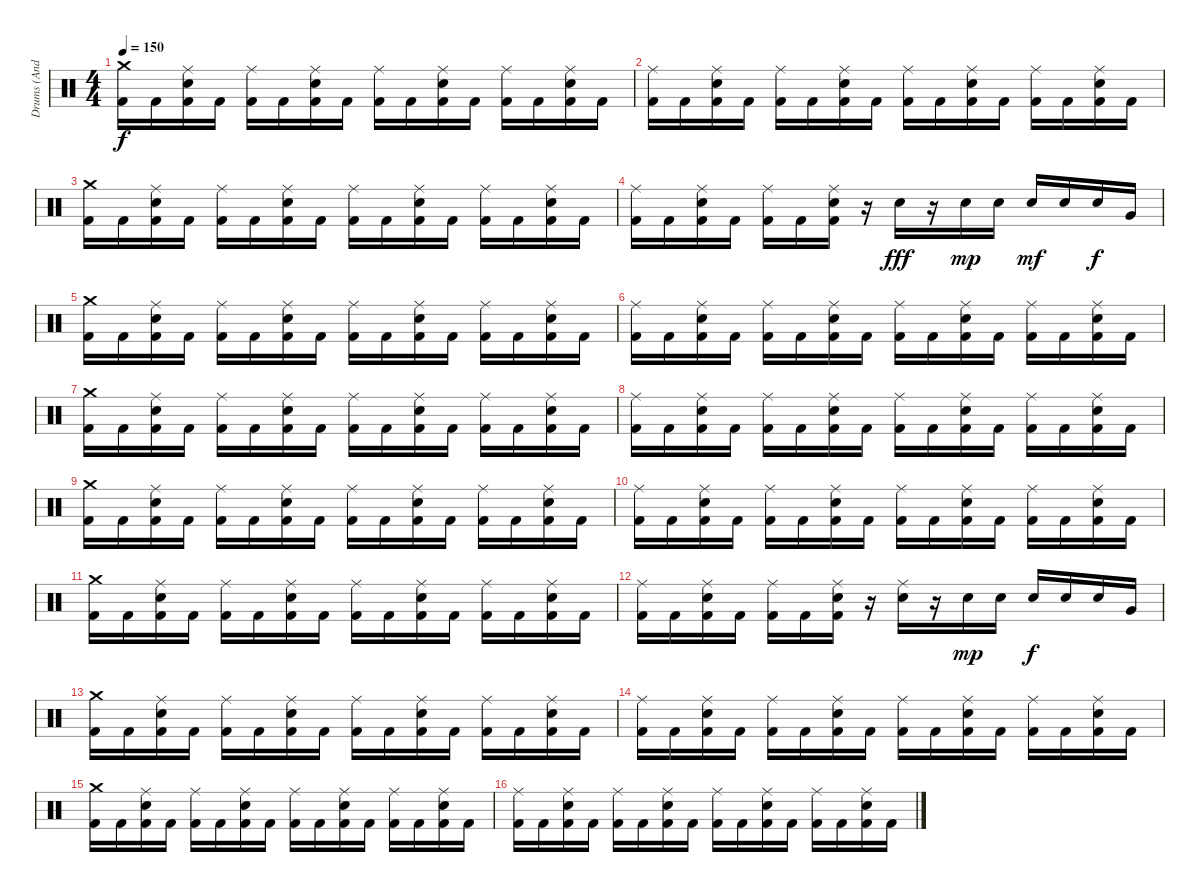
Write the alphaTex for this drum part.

\track ("Drums (Andy C)" "Drums (And") {instrument percussion}
\staff {score}
\articulation defaults
\ts (4 4)
\tempo 150
\clef neutral
\ks c
("Crash medium (hit)" "Kick (hit) 2").16{dy f} "Kick (hit) 2".16 ("Ride (middle)" "Kick (hit) 2" "Electric Snare (hit)").16 "Kick (hit) 2".16 ("Ride (middle)" "Kick (hit) 2").16 "Kick (hit) 2".16 ("Ride (middle)" "Kick (hit) 2" "Electric Snare (hit)").16 "Kick (hit) 2".16 ("Ride (middle)" "Kick (hit) 2").16 "Kick (hit) 2".16 ("Ride (middle)" "Kick (hit) 2" "Electric Snare (hit)").16 "Kick (hit) 2".16 ("Ride (middle)" "Kick (hit) 2").16 "Kick (hit) 2".16 ("Ride (middle)" "Kick (hit) 2" "Electric Snare (hit)").16 "Kick (hit) 2".16 |
("Ride (middle)" "Kick (hit) 2").16 "Kick (hit) 2".16 ("Ride (middle)" "Kick (hit) 2" "Electric Snare (hit)").16 "Kick (hit) 2".16 ("Ride (middle)" "Kick (hit) 2").16 "Kick (hit) 2".16 ("Ride (middle)" "Kick (hit) 2" "Electric Snare (hit)").16 "Kick (hit) 2".16 ("Ride (middle)" "Kick (hit) 2").16 "Kick (hit) 2".16 ("Ride (middle)" "Kick (hit) 2" "Electric Snare (hit)").16 "Kick (hit) 2".16 ("Ride (middle)" "Kick (hit) 2").16 "Kick (hit) 2".16 ("Ride (middle)" "Kick (hit) 2" "Electric Snare (hit)").16 "Kick (hit) 2".16 |
("Crash medium (hit)" "Kick (hit) 2").16 "Kick (hit) 2".16 ("Ride (middle)" "Kick (hit) 2" "Electric Snare (hit)").16 "Kick (hit) 2".16 ("Ride (middle)" "Kick (hit) 2").16 "Kick (hit) 2".16 ("Ride (middle)" "Kick (hit) 2" "Electric Snare (hit)").16 "Kick (hit) 2".16 ("Ride (middle)" "Kick (hit) 2").16 "Kick (hit) 2".16 ("Ride (middle)" "Kick (hit) 2" "Electric Snare (hit)").16 "Kick (hit) 2".16 ("Ride (middle)" "Kick (hit) 2").16 "Kick (hit) 2".16 ("Ride (middle)" "Kick (hit) 2" "Electric Snare (hit)").16 "Kick (hit) 2".16 |
("Ride (middle)" "Kick (hit) 2").16 "Kick (hit) 2".16 ("Ride (middle)" "Kick (hit) 2" "Electric Snare (hit)").16 "Kick (hit) 2".16 ("Ride (middle)" "Kick (hit) 2").16 "Kick (hit) 2".16 ("Ride (middle)" "Kick (hit) 2" "Electric Snare (hit)").16 r.16 "Electric Snare (hit)".16{dy fff} r.16 "Electric Snare (hit)".16{dy mp} "Electric Snare (hit)".16 "Electric Snare (hit)".16{dy mf} "Electric Snare (hit)".16 "Electric Snare (hit)".16{dy f} "Very Low Tom (hit)".16 |
("Crash medium (hit)" "Kick (hit) 2").16 "Kick (hit) 2".16 ("Ride (middle)" "Kick (hit) 2" "Electric Snare (hit)").16 "Kick (hit) 2".16 ("Ride (middle)" "Kick (hit) 2").16 "Kick (hit) 2".16 ("Ride (middle)" "Kick (hit) 2" "Electric Snare (hit)").16 "Kick (hit) 2".16 ("Ride (middle)" "Kick (hit) 2").16 "Kick (hit) 2".16 ("Ride (middle)" "Kick (hit) 2" "Electric Snare (hit)").16 "Kick (hit) 2".16 ("Ride (middle)" "Kick (hit) 2").16 "Kick (hit) 2".16 ("Ride (middle)" "Kick (hit) 2" "Electric Snare (hit)").16 "Kick (hit) 2".16 |
("Ride (middle)" "Kick (hit) 2").16 "Kick (hit) 2".16 ("Ride (middle)" "Kick (hit) 2" "Electric Snare (hit)").16 "Kick (hit) 2".16 ("Ride (middle)" "Kick (hit) 2").16 "Kick (hit) 2".16 ("Ride (middle)" "Kick (hit) 2" "Electric Snare (hit)").16 "Kick (hit) 2".16 ("Ride (middle)" "Kick (hit) 2").16 "Kick (hit) 2".16 ("Ride (middle)" "Kick (hit) 2" "Electric Snare (hit)").16 "Kick (hit) 2".16 ("Ride (middle)" "Kick (hit) 2").16 "Kick (hit) 2".16 ("Ride (middle)" "Kick (hit) 2" "Electric Snare (hit)").16 "Kick (hit) 2".16 |
("Crash medium (hit)" "Kick (hit) 2").16 "Kick (hit) 2".16 ("Ride (middle)" "Kick (hit) 2" "Electric Snare (hit)").16 "Kick (hit) 2".16 ("Ride (middle)" "Kick (hit) 2").16 "Kick (hit) 2".16 ("Ride (middle)" "Kick (hit) 2" "Electric Snare (hit)").16 "Kick (hit) 2".16 ("Ride (middle)" "Kick (hit) 2").16 "Kick (hit) 2".16 ("Ride (middle)" "Kick (hit) 2" "Electric Snare (hit)").16 "Kick (hit) 2".16 ("Ride (middle)" "Kick (hit) 2").16 "Kick (hit) 2".16 ("Ride (middle)" "Kick (hit) 2" "Electric Snare (hit)").16 "Kick (hit) 2".16 |
("Ride (middle)" "Kick (hit) 2").16 "Kick (hit) 2".16 ("Ride (middle)" "Kick (hit) 2" "Electric Snare (hit)").16 "Kick (hit) 2".16 ("Ride (middle)" "Kick (hit) 2").16 "Kick (hit) 2".16 ("Ride (middle)" "Kick (hit) 2" "Electric Snare (hit)").16 "Kick (hit) 2".16 ("Ride (middle)" "Kick (hit) 2").16 "Kick (hit) 2".16 ("Ride (middle)" "Kick (hit) 2" "Electric Snare (hit)").16 "Kick (hit) 2".16 ("Ride (middle)" "Kick (hit) 2").16 "Kick (hit) 2".16 ("Ride (middle)" "Kick (hit) 2" "Electric Snare (hit)").16 "Kick (hit) 2".16 |
("Crash medium (hit)" "Kick (hit) 2").16 "Kick (hit) 2".16 ("Ride (middle)" "Kick (hit) 2" "Electric Snare (hit)").16 "Kick (hit) 2".16 ("Ride (middle)" "Kick (hit) 2").16 "Kick (hit) 2".16 ("Ride (middle)" "Kick (hit) 2" "Electric Snare (hit)").16 "Kick (hit) 2".16 ("Ride (middle)" "Kick (hit) 2").16 "Kick (hit) 2".16 ("Ride (middle)" "Kick (hit) 2" "Electric Snare (hit)").16 "Kick (hit) 2".16 ("Ride (middle)" "Kick (hit) 2").16 "Kick (hit) 2".16 ("Ride (middle)" "Kick (hit) 2" "Electric Snare (hit)").16 "Kick (hit) 2".16 |
("Ride (middle)" "Kick (hit) 2").16 "Kick (hit) 2".16 ("Ride (middle)" "Kick (hit) 2" "Electric Snare (hit)").16 "Kick (hit) 2".16 ("Ride (middle)" "Kick (hit) 2").16 "Kick (hit) 2".16 ("Ride (middle)" "Kick (hit) 2" "Electric Snare (hit)").16 "Kick (hit) 2".16 ("Ride (middle)" "Kick (hit) 2").16 "Kick (hit) 2".16 ("Ride (middle)" "Kick (hit) 2" "Electric Snare (hit)").16 "Kick (hit) 2".16 ("Ride (middle)" "Kick (hit) 2").16 "Kick (hit) 2".16 ("Ride (middle)" "Kick (hit) 2" "Electric Snare (hit)").16 "Kick (hit) 2".16 |
("Crash medium (hit)" "Kick (hit) 2").16 "Kick (hit) 2".16 ("Ride (middle)" "Kick (hit) 2" "Electric Snare (hit)").16 "Kick (hit) 2".16 ("Ride (middle)" "Kick (hit) 2").16 "Kick (hit) 2".16 ("Ride (middle)" "Kick (hit) 2" "Electric Snare (hit)").16 "Kick (hit) 2".16 ("Ride (middle)" "Kick (hit) 2").16 "Kick (hit) 2".16 ("Ride (middle)" "Kick (hit) 2" "Electric Snare (hit)").16 "Kick (hit) 2".16 ("Ride (middle)" "Kick (hit) 2").16 "Kick (hit) 2".16 ("Ride (middle)" "Kick (hit) 2" "Electric Snare (hit)").16 "Kick (hit) 2".16 |
("Ride (middle)" "Kick (hit) 2").16 "Kick (hit) 2".16 ("Ride (middle)" "Kick (hit) 2" "Electric Snare (hit)").16 "Kick (hit) 2".16 ("Ride (middle)" "Kick (hit) 2").16 "Kick (hit) 2".16 ("Ride (middle)" "Kick (hit) 2" "Electric Snare (hit)").16 r.16 ("Ride (middle)" "Electric Snare (hit)").16 r.16 "Electric Snare (hit)".16{dy mp} "Electric Snare (hit)".16 "Electric Snare (hit)".16{dy f} "Electric Snare (hit)".16 "Electric Snare (hit)".16 "Very Low Tom (hit)".16 |
("Crash medium (hit)" "Kick (hit) 2").16 "Kick (hit) 2".16 ("Ride (middle)" "Kick (hit) 2" "Electric Snare (hit)").16 "Kick (hit) 2".16 ("Ride (middle)" "Kick (hit) 2").16 "Kick (hit) 2".16 ("Ride (middle)" "Kick (hit) 2" "Electric Snare (hit)").16 "Kick (hit) 2".16 ("Ride (middle)" "Kick (hit) 2").16 "Kick (hit) 2".16 ("Ride (middle)" "Kick (hit) 2" "Electric Snare (hit)").16 "Kick (hit) 2".16 ("Ride (middle)" "Kick (hit) 2").16 "Kick (hit) 2".16 ("Ride (middle)" "Kick (hit) 2" "Electric Snare (hit)").16 "Kick (hit) 2".16 |
("Ride (middle)" "Kick (hit) 2").16 "Kick (hit) 2".16 ("Ride (middle)" "Kick (hit) 2" "Electric Snare (hit)").16 "Kick (hit) 2".16 ("Ride (middle)" "Kick (hit) 2").16 "Kick (hit) 2".16 ("Ride (middle)" "Kick (hit) 2" "Electric Snare (hit)").16 "Kick (hit) 2".16 ("Ride (middle)" "Kick (hit) 2").16 "Kick (hit) 2".16 ("Ride (middle)" "Kick (hit) 2" "Electric Snare (hit)").16 "Kick (hit) 2".16 ("Ride (middle)" "Kick (hit) 2").16 "Kick (hit) 2".16 ("Ride (middle)" "Kick (hit) 2" "Electric Snare (hit)").16 "Kick (hit) 2".16 |
("Crash medium (hit)" "Kick (hit) 2").16 "Kick (hit) 2".16 ("Ride (middle)" "Kick (hit) 2" "Electric Snare (hit)").16 "Kick (hit) 2".16 ("Ride (middle)" "Kick (hit) 2").16 "Kick (hit) 2".16 ("Ride (middle)" "Kick (hit) 2" "Electric Snare (hit)").16 "Kick (hit) 2".16 ("Ride (middle)" "Kick (hit) 2").16 "Kick (hit) 2".16 ("Ride (middle)" "Kick (hit) 2" "Electric Snare (hit)").16 "Kick (hit) 2".16 ("Ride (middle)" "Kick (hit) 2").16 "Kick (hit) 2".16 ("Ride (middle)" "Kick (hit) 2" "Electric Snare (hit)").16 "Kick (hit) 2".16 |
("Ride (middle)" "Kick (hit) 2").16 "Kick (hit) 2".16 ("Ride (middle)" "Kick (hit) 2" "Electric Snare (hit)").16 "Kick (hit) 2".16 ("Ride (middle)" "Kick (hit) 2").16 "Kick (hit) 2".16 ("Ride (middle)" "Kick (hit) 2" "Electric Snare (hit)").16 "Kick (hit) 2".16 ("Ride (middle)" "Kick (hit) 2").16 "Kick (hit) 2".16 ("Ride (middle)" "Kick (hit) 2" "Electric Snare (hit)").16 "Kick (hit) 2".16 ("Ride (middle)" "Kick (hit) 2").16 "Kick (hit) 2".16 ("Ride (middle)" "Kick (hit) 2" "Electric Snare (hit)").16 "Kick (hit) 2".16
